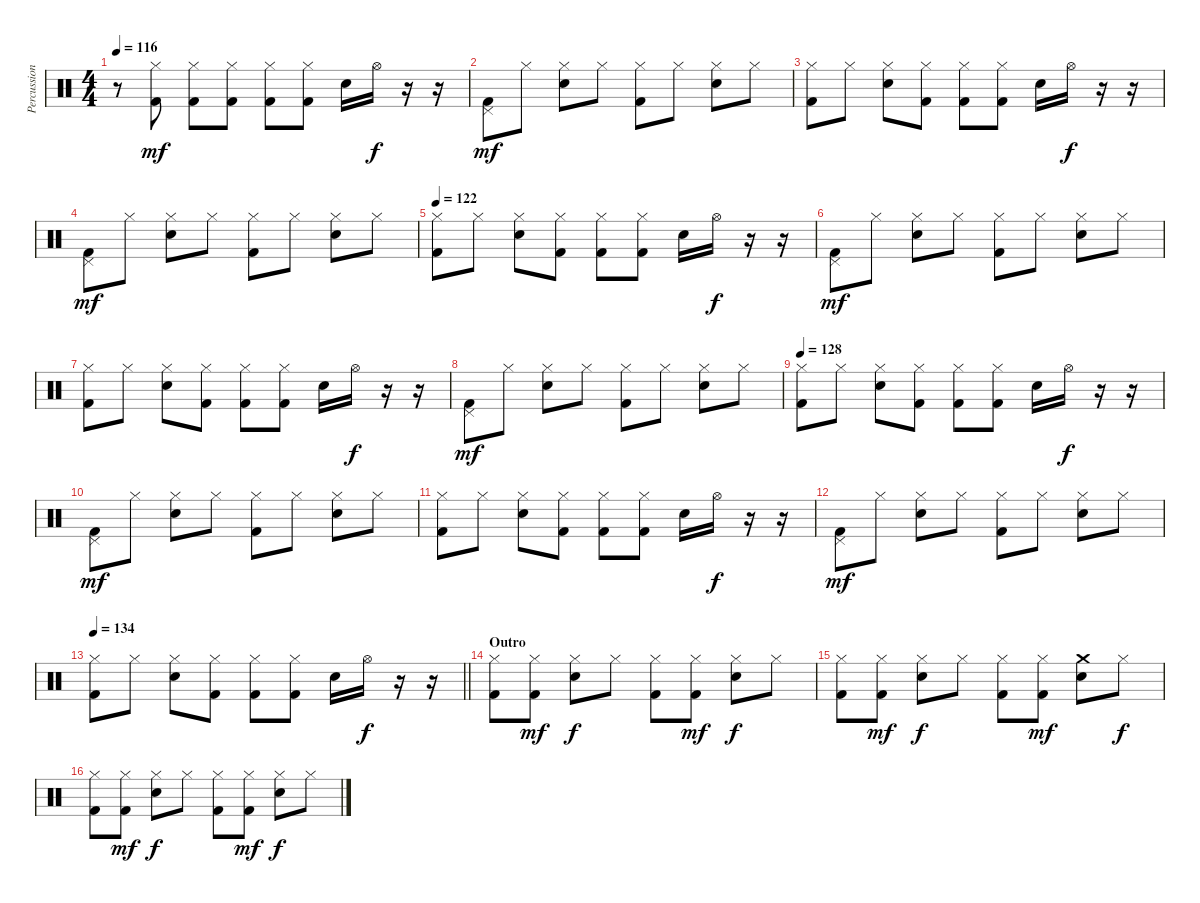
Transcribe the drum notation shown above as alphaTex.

\track ("Percussion" "Percussion") {instrument percussion}
\staff {score}
\articulation defaults
\ts (4 4)
\tempo 116
\clef neutral
\ks c
r.8{dy mf} ("Hi-Hat (closed)" "Kick (hit) 2").8 ("Hi-Hat (closed)" "Kick (hit) 2").8 ("Hi-Hat (closed)" "Kick (hit) 2").8 ("Hi-Hat (closed)" "Kick (hit) 2").8 ("Hi-Hat (closed)" "Kick (hit) 2").8 "Snare (hit) 2".16 "Hi-Hat (open)".16{dy f} r.16 r.16 |
("Pedal Hi-Hat (hit)" "Kick (hit) 2").8{dy mf} "Hi-Hat (closed)".8 ("Hi-Hat (closed)" "Snare (hit) 2").8 "Hi-Hat (closed)".8 ("Hi-Hat (closed)" "Kick (hit) 2").8 "Hi-Hat (closed)".8 ("Hi-Hat (closed)" "Snare (hit) 2").8 "Hi-Hat (closed)".8 |
("Hi-Hat (closed)" "Kick (hit) 2").8 "Hi-Hat (closed)".8 ("Hi-Hat (closed)" "Snare (hit) 2").8 ("Hi-Hat (closed)" "Kick (hit) 2").8 ("Hi-Hat (closed)" "Kick (hit) 2").8 ("Hi-Hat (closed)" "Kick (hit) 2").8 "Snare (hit) 2".16 "Hi-Hat (open)".16{dy f} r.16 r.16 |
("Pedal Hi-Hat (hit)" "Kick (hit) 2").8{dy mf} "Hi-Hat (closed)".8 ("Hi-Hat (closed)" "Snare (hit) 2").8 "Hi-Hat (closed)".8 ("Hi-Hat (closed)" "Kick (hit) 2").8 "Hi-Hat (closed)".8 ("Hi-Hat (closed)" "Snare (hit) 2").8 "Hi-Hat (closed)".8 |
\tempo 122
("Hi-Hat (closed)" "Kick (hit) 2").8 "Hi-Hat (closed)".8 ("Hi-Hat (closed)" "Snare (hit) 2").8 ("Hi-Hat (closed)" "Kick (hit) 2").8 ("Hi-Hat (closed)" "Kick (hit) 2").8 ("Hi-Hat (closed)" "Kick (hit) 2").8 "Snare (hit) 2".16 "Hi-Hat (open)".16{dy f} r.16 r.16 |
("Pedal Hi-Hat (hit)" "Kick (hit) 2").8{dy mf} "Hi-Hat (closed)".8 ("Hi-Hat (closed)" "Snare (hit) 2").8 "Hi-Hat (closed)".8 ("Hi-Hat (closed)" "Kick (hit) 2").8 "Hi-Hat (closed)".8 ("Hi-Hat (closed)" "Snare (hit) 2").8 "Hi-Hat (closed)".8 |
("Hi-Hat (closed)" "Kick (hit) 2").8 "Hi-Hat (closed)".8 ("Hi-Hat (closed)" "Snare (hit) 2").8 ("Hi-Hat (closed)" "Kick (hit) 2").8 ("Hi-Hat (closed)" "Kick (hit) 2").8 ("Hi-Hat (closed)" "Kick (hit) 2").8 "Snare (hit) 2".16 "Hi-Hat (open)".16{dy f} r.16 r.16 |
("Pedal Hi-Hat (hit)" "Kick (hit) 2").8{dy mf} "Hi-Hat (closed)".8 ("Hi-Hat (closed)" "Snare (hit) 2").8 "Hi-Hat (closed)".8 ("Hi-Hat (closed)" "Kick (hit) 2").8 "Hi-Hat (closed)".8 ("Hi-Hat (closed)" "Snare (hit) 2").8 "Hi-Hat (closed)".8 |
\tempo 128
("Hi-Hat (closed)" "Kick (hit) 2").8 "Hi-Hat (closed)".8 ("Hi-Hat (closed)" "Snare (hit) 2").8 ("Hi-Hat (closed)" "Kick (hit) 2").8 ("Hi-Hat (closed)" "Kick (hit) 2").8 ("Hi-Hat (closed)" "Kick (hit) 2").8 "Snare (hit) 2".16 "Hi-Hat (open)".16{dy f} r.16 r.16 |
("Pedal Hi-Hat (hit)" "Kick (hit) 2").8{dy mf} "Hi-Hat (closed)".8 ("Hi-Hat (closed)" "Snare (hit) 2").8 "Hi-Hat (closed)".8 ("Hi-Hat (closed)" "Kick (hit) 2").8 "Hi-Hat (closed)".8 ("Hi-Hat (closed)" "Snare (hit) 2").8 "Hi-Hat (closed)".8 |
("Hi-Hat (closed)" "Kick (hit) 2").8 "Hi-Hat (closed)".8 ("Hi-Hat (closed)" "Snare (hit) 2").8 ("Hi-Hat (closed)" "Kick (hit) 2").8 ("Hi-Hat (closed)" "Kick (hit) 2").8 ("Hi-Hat (closed)" "Kick (hit) 2").8 "Snare (hit) 2".16 "Hi-Hat (open)".16{dy f} r.16 r.16 |
("Pedal Hi-Hat (hit)" "Kick (hit) 2").8{dy mf} "Hi-Hat (closed)".8 ("Hi-Hat (closed)" "Snare (hit) 2").8 "Hi-Hat (closed)".8 ("Hi-Hat (closed)" "Kick (hit) 2").8 "Hi-Hat (closed)".8 ("Hi-Hat (closed)" "Snare (hit) 2").8 "Hi-Hat (closed)".8 |
\tempo 134
\barLineRight lightlight
("Hi-Hat (closed)" "Kick (hit) 2").8 "Hi-Hat (closed)".8 ("Hi-Hat (closed)" "Snare (hit) 2").8 ("Hi-Hat (closed)" "Kick (hit) 2").8 ("Hi-Hat (closed)" "Kick (hit) 2").8 ("Hi-Hat (closed)" "Kick (hit) 2").8 "Snare (hit) 2".16 "Hi-Hat (open)".16{dy f} r.16 r.16 |
\section ("" "Outro")
("Hi-Hat (closed)" "Kick (hit) 2").8 ("Hi-Hat (closed)" "Kick (hit) 2").8{dy mf} ("Hi-Hat (closed)" "Snare (hit) 2").8{dy f} "Hi-Hat (closed)".8 ("Hi-Hat (closed)" "Kick (hit) 2").8 ("Hi-Hat (closed)" "Kick (hit) 2").8{dy mf} ("Hi-Hat (closed)" "Snare (hit) 2").8{dy f} "Hi-Hat (closed)".8 |
("Hi-Hat (closed)" "Kick (hit) 2").8 ("Hi-Hat (closed)" "Kick (hit) 2").8{dy mf} ("Hi-Hat (closed)" "Snare (hit) 2").8{dy f} "Hi-Hat (closed)".8 ("Hi-Hat (closed)" "Kick (hit) 2").8 ("Hi-Hat (closed)" "Kick (hit) 2").8{dy mf} ("Crash medium (hit)" "Snare (hit) 2").8 "Hi-Hat (closed)".8{dy f} |
("Hi-Hat (closed)" "Kick (hit) 2").8 ("Hi-Hat (closed)" "Kick (hit) 2").8{dy mf} ("Hi-Hat (closed)" "Snare (hit) 2").8{dy f} "Hi-Hat (closed)".8 ("Hi-Hat (closed)" "Kick (hit) 2").8 ("Hi-Hat (closed)" "Kick (hit) 2").8{dy mf} ("Hi-Hat (closed)" "Snare (hit) 2").8{dy f} "Hi-Hat (closed)".8
